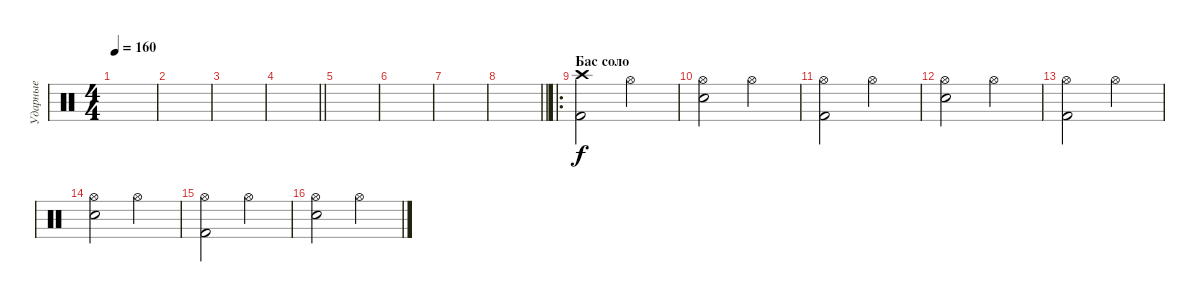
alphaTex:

\track ("Ударные" "Ударные") {instrument percussion}
\staff {score}
\articulation defaults
\ts (4 4)
\tempo 160
\clef neutral
\ks c
|
|
|
\barLineRight lightlight
|
|
|
|
\barLineRight lightlight
|
\ro
\section ("" "Бас соло")
("Crash high (hit)" "Kick (hit) 2").2 "Hi-Hat (open)".2 |
("Hi-Hat (open)" "Snare (hit) 2").2 "Hi-Hat (open)".2 |
("Hi-Hat (open)" "Kick (hit) 2").2 "Hi-Hat (open)".2 |
("Hi-Hat (open)" "Snare (hit) 2").2 "Hi-Hat (open)".2 |
("Hi-Hat (open)" "Kick (hit) 2").2 "Hi-Hat (open)".2 |
("Hi-Hat (open)" "Snare (hit) 2").2 "Hi-Hat (open)".2 |
("Hi-Hat (open)" "Kick (hit) 2").2 "Hi-Hat (open)".2 |
("Hi-Hat (open)" "Snare (hit) 2").2 "Hi-Hat (open)".2
